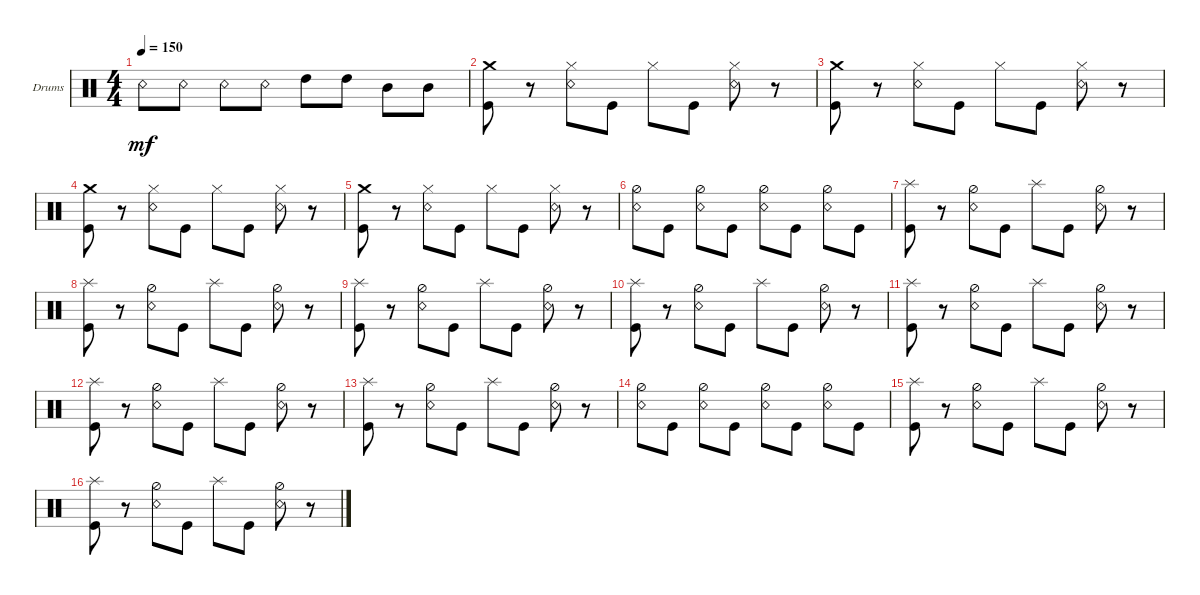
\defaultSystemsLayout 4
\bracketExtendMode groupsimilarinstruments
\firstSystemTrackNameOrientation horizontal
\otherSystemsTrackNameOrientation horizontal
\track ("Drumkit" "Drums") {instrument percussion}
\staff {score}
\articulation defaults
\ts (4 4)
\tempo 150
\clef neutral
\ks c "Snare (rim shot)".8{dy mf} "Snare (rim shot)".8 "Snare (rim shot)".8 "Snare (rim shot)".8 "High Tom (hit)".8 "High Tom (hit)".8 "Mid Tom (hit)".8 "Mid Tom (hit)".8
|
("Kick (hit)" "Crash medium (hit)").8 r.8 ("Hi-Hat (closed)" "Snare (rim shot)").8 "Kick (hit)".8 "Hi-Hat (closed)".8 "Kick (hit)".8 ("Hi-Hat (closed)" "Snare (rim shot)").8 r.8 |
("Kick (hit)" "Crash medium (hit)").8 r.8 ("Hi-Hat (closed)" "Snare (rim shot)").8 "Kick (hit)".8 "Hi-Hat (closed)".8 "Kick (hit)".8 ("Hi-Hat (closed)" "Snare (rim shot)").8 r.8 |
("Kick (hit)" "Crash medium (hit)").8 r.8 ("Hi-Hat (closed)" "Snare (rim shot)").8 "Kick (hit)".8 "Hi-Hat (closed)".8 "Kick (hit)".8 ("Hi-Hat (closed)" "Snare (rim shot)").8 r.8 |
("Kick (hit)" "Crash medium (hit)").8 r.8 ("Hi-Hat (closed)" "Snare (rim shot)").8 "Kick (hit)".8 "Hi-Hat (closed)".8 "Kick (hit)".8 ("Hi-Hat (closed)" "Snare (rim shot)").8 r.8 |
("Snare (rim shot)" "Hi-Hat (half)").8 "Kick (hit)".8 ("Snare (rim shot)" "Hi-Hat (half)").8 "Kick (hit)".8 ("Snare (rim shot)" "Hi-Hat (half)").8 "Kick (hit)".8 ("Snare (rim shot)" "Hi-Hat (half)").8 "Kick (hit)".8 |
("Kick (hit)" "Splash (hit)").8 r.8 ("Hi-Hat (half)" "Snare (rim shot)").8 "Kick (hit)".8 "Splash (hit)".8 "Kick (hit)".8 ("Hi-Hat (half)" "Snare (rim shot)").8 r.8 |
("Kick (hit)" "Splash (hit)").8 r.8 ("Hi-Hat (half)" "Snare (rim shot)").8 "Kick (hit)".8 "Splash (hit)".8 "Kick (hit)".8 ("Hi-Hat (half)" "Snare (rim shot)").8 r.8 |
("Kick (hit)" "Splash (hit)").8 r.8 ("Hi-Hat (half)" "Snare (rim shot)").8 "Kick (hit)".8 "Splash (hit)".8 "Kick (hit)".8 ("Hi-Hat (half)" "Snare (rim shot)").8 r.8 |
("Kick (hit)" "Splash (hit)").8 r.8 ("Hi-Hat (half)" "Snare (rim shot)").8 "Kick (hit)".8 "Splash (hit)".8 "Kick (hit)".8 ("Hi-Hat (half)" "Snare (rim shot)").8 r.8 |
("Kick (hit)" "Splash (hit)").8 r.8 ("Hi-Hat (half)" "Snare (rim shot)").8 "Kick (hit)".8 "Splash (hit)".8 "Kick (hit)".8 ("Hi-Hat (half)" "Snare (rim shot)").8 r.8 |
("Kick (hit)" "Splash (hit)").8 r.8 ("Hi-Hat (half)" "Snare (rim shot)").8 "Kick (hit)".8 "Splash (hit)".8 "Kick (hit)".8 ("Hi-Hat (half)" "Snare (rim shot)").8 r.8 |
("Kick (hit)" "Splash (hit)").8 r.8 ("Hi-Hat (half)" "Snare (rim shot)").8 "Kick (hit)".8 "Splash (hit)".8 "Kick (hit)".8 ("Hi-Hat (half)" "Snare (rim shot)").8 r.8 |
("Snare (rim shot)" "Hi-Hat (half)").8 "Kick (hit)".8 ("Snare (rim shot)" "Hi-Hat (half)").8 "Kick (hit)".8 ("Snare (rim shot)" "Hi-Hat (half)").8 "Kick (hit)".8 ("Snare (rim shot)" "Hi-Hat (half)").8 "Kick (hit)".8 |
("Kick (hit)" "Splash (hit)").8 r.8 ("Hi-Hat (half)" "Snare (rim shot)").8 "Kick (hit)".8 "Splash (hit)".8 "Kick (hit)".8 ("Hi-Hat (half)" "Snare (rim shot)").8 r.8 |
("Kick (hit)" "Splash (hit)").8 r.8 ("Hi-Hat (half)" "Snare (rim shot)").8 "Kick (hit)".8 "Splash (hit)".8 "Kick (hit)".8 ("Hi-Hat (half)" "Snare (rim shot)").8 r.8
